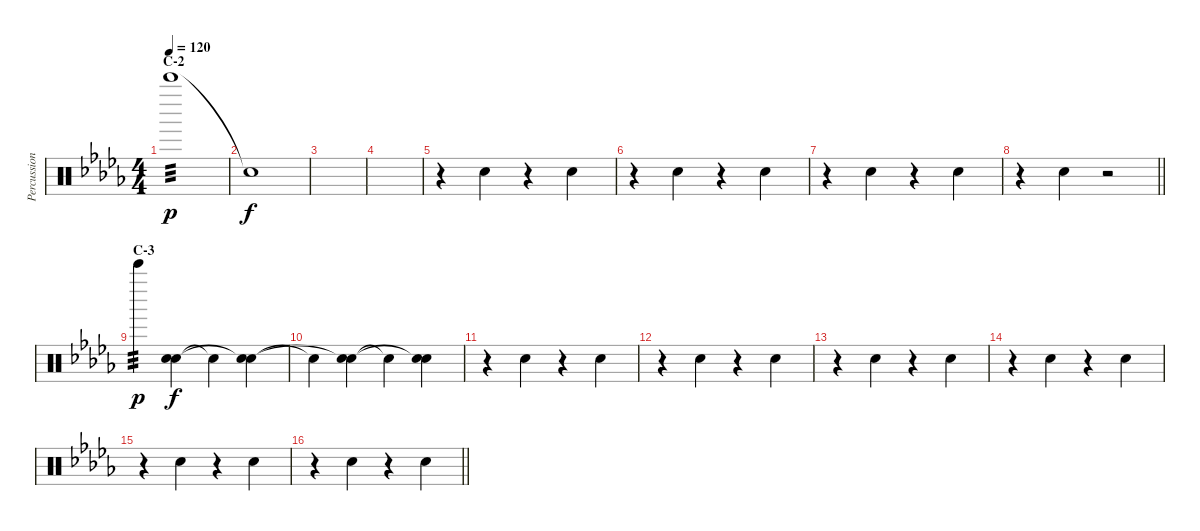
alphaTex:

\track ("Percussion B1 (Tainaka Ritsu)" "Percussion") {instrument percussion}
\staff {score}
\articulation defaults
\ts (4 4)
\section ("" "C-2")
\tempo 120
\clef neutral
\ks db "Bell Tree (hit)".1{tp 3 dy p}
|
"Snare (hit)"{t}.1{dy f} |
|
|
r.4 "Hand Clap (hit)".4 r.4 "Hand Clap (hit)".4 |
r.4 "Hand Clap (hit)".4 r.4 "Hand Clap (hit)".4 |
r.4 "Hand Clap (hit)".4 r.4 "Hand Clap (hit)".4 |
\barLineRight lightlight
r.4 "Hand Clap (hit)".4 r.2 |
\section ("" "C-3")
"Bell Tree (hit)".4{tp 3 dy p} ("Hand Clap (hit)" "Snare (hit)").4{dy f} "Snare (hit)"{t}.4 ("Hand Clap (hit)" "Snare (hit)"{t}).4 |
"Snare (hit)"{t}.4 ("Hand Clap (hit)" "Snare (hit)"{t}).4 "Snare (hit)"{t}.4 ("Hand Clap (hit)" "Snare (hit)"{t}).4 |
r.4 "Hand Clap (hit)".4 r.4 "Hand Clap (hit)".4 |
r.4 "Hand Clap (hit)".4 r.4 "Hand Clap (hit)".4 |
r.4 "Hand Clap (hit)".4 r.4 "Hand Clap (hit)".4 |
r.4 "Hand Clap (hit)".4 r.4 "Hand Clap (hit)".4 |
r.4 "Hand Clap (hit)".4 r.4 "Hand Clap (hit)".4 |
\barLineRight lightlight
r.4 "Hand Clap (hit)".4 r.4 "Hand Clap (hit)".4
